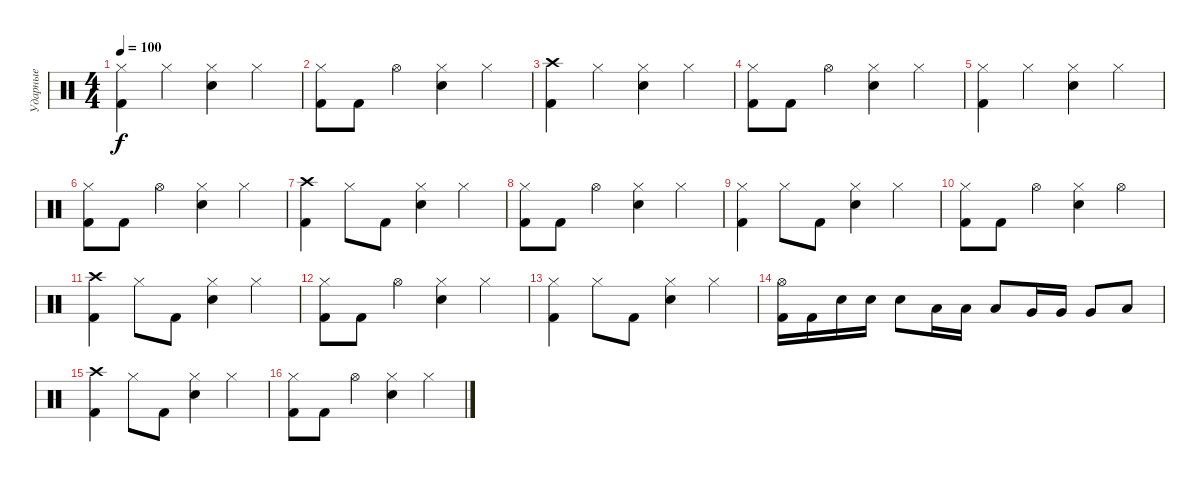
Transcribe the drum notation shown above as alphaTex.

\track ("Ударные" "Ударные") {instrument percussion}
\staff {score}
\articulation defaults
\ts (4 4)
\tempo 100
\clef neutral
\ks c
("Hi-Hat (closed)" "Kick (hit) 2").4{dy f} "Hi-Hat (closed)".4 ("Hi-Hat (closed)" "Snare (hit) 2").4 "Hi-Hat (closed)".4 |
("Hi-Hat (closed)" "Kick (hit) 2").8 "Kick (hit) 2".8 "Hi-Hat (open)".4 ("Hi-Hat (closed)" "Snare (hit) 2").4 "Hi-Hat (closed)".4 |
("Crash high (hit)" "Kick (hit) 2").4 "Hi-Hat (closed)".4 ("Hi-Hat (closed)" "Snare (hit) 2").4 "Hi-Hat (closed)".4 |
("Hi-Hat (closed)" "Kick (hit) 2").8 "Kick (hit) 2".8 "Hi-Hat (open)".4 ("Hi-Hat (closed)" "Snare (hit) 2").4 "Hi-Hat (closed)".4 |
("Hi-Hat (closed)" "Kick (hit) 2").4 "Hi-Hat (closed)".4 ("Hi-Hat (closed)" "Snare (hit) 2").4 "Hi-Hat (closed)".4 |
("Hi-Hat (closed)" "Kick (hit) 2").8 "Kick (hit) 2".8 "Hi-Hat (open)".4 ("Hi-Hat (closed)" "Snare (hit) 2").4 "Hi-Hat (closed)".4 |
("Crash high (hit)" "Kick (hit) 2").4 "Hi-Hat (closed)".8 "Kick (hit) 2".8 ("Hi-Hat (closed)" "Snare (hit) 2").4 "Hi-Hat (closed)".4 |
("Hi-Hat (closed)" "Kick (hit) 2").8 "Kick (hit) 2".8 "Hi-Hat (open)".4 ("Hi-Hat (closed)" "Snare (hit) 2").4 "Hi-Hat (closed)".4 |
("Hi-Hat (closed)" "Kick (hit) 2").4 "Hi-Hat (closed)".8 "Kick (hit) 2".8 ("Hi-Hat (closed)" "Snare (hit) 2").4 "Hi-Hat (closed)".4 |
("Hi-Hat (closed)" "Kick (hit) 2").8 "Kick (hit) 2".8 "Hi-Hat (open)".4 ("Hi-Hat (closed)" "Snare (hit) 2").4 "Hi-Hat (open)".4 |
("Crash high (hit)" "Kick (hit) 2").4 "Hi-Hat (closed)".8 "Kick (hit) 2".8 ("Hi-Hat (closed)" "Snare (hit) 2").4 "Hi-Hat (closed)".4 |
("Hi-Hat (closed)" "Kick (hit) 2").8 "Kick (hit) 2".8 "Hi-Hat (open)".4 ("Hi-Hat (closed)" "Snare (hit) 2").4 "Hi-Hat (closed)".4 |
("Hi-Hat (closed)" "Kick (hit) 2").4 "Hi-Hat (closed)".8 "Kick (hit) 2".8 ("Hi-Hat (closed)" "Snare (hit) 2").4 "Hi-Hat (closed)".4 |
("Hi-Hat (open)" "Kick (hit) 2").16 "Kick (hit) 2".16 "Snare (hit) 2".16 "Snare (hit) 2".16 "Snare (hit) 2".8 "Low Tom (hit)".16 "Low Tom (hit)".16 "Low Tom (hit)".8 "Very Low Tom (hit)".16 "Very Low Tom (hit)".16 "Very Low Tom (hit)".8 "Low Floor Tom (hit)".8 |
("Crash high (hit)" "Kick (hit) 2").4 "Hi-Hat (closed)".8 "Kick (hit) 2".8 ("Hi-Hat (closed)" "Snare (hit) 2").4 "Hi-Hat (closed)".4 |
("Hi-Hat (closed)" "Kick (hit) 2").8 "Kick (hit) 2".8 "Hi-Hat (open)".4 ("Hi-Hat (closed)" "Snare (hit) 2").4 "Hi-Hat (closed)".4
